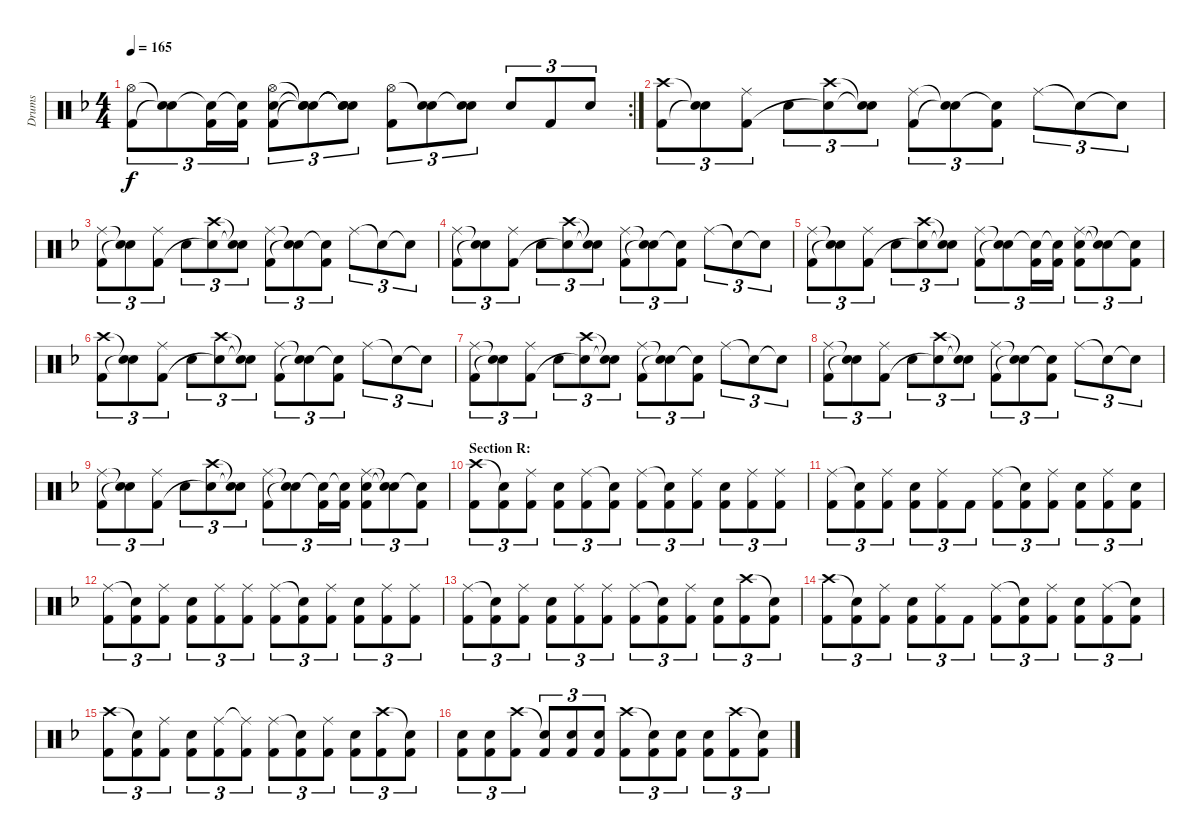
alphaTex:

\track ("Drums" "Drums") {instrument percussion}
\staff {score}
\articulation defaults
\rc 2
\ts (4 4)
\tempo 165
\clef neutral
\ks f
("Hi-Hat (open)" "Kick (hit) 2").8{tu (3 2) dy f} ("Snare (hit)"{t} "Snare (hit)"{t}).8{tu (3 2)} ("Snare (hit)"{t} "Kick (hit) 2").16{tu (3 2)} ("Snare (hit)"{t} "Kick (hit) 2").16{tu (3 2)} ("Hi-Hat (open)" "Snare (hit) 2" "Kick (hit) 2").8{tu (3 2)} ("Snare (hit)"{t} "Snare (hit)"{t} "Snare (hit)"{t}).8{tu (3 2)} ("Snare (hit)"{t} "Snare (hit)"{t} "Snare (hit)"{t}).8{tu (3 2)} ("Hi-Hat (open)" "Kick (hit) 2").8{tu (3 2)} ("Snare (hit)"{t} "Snare (hit) 2").8{tu (3 2)} ("Snare (hit)"{t} "Snare (hit) 2").8{tu (3 2)} "Snare (hit) 2".8{tu (3 2)} "Kick (hit) 2".8{tu (3 2)} "Snare (hit) 2".8{tu (3 2)} |
("Crash high (hit)" "Kick (hit) 2").8{tu (3 2)} ("Snare (hit)"{t} "Snare (hit)"{t}).8{tu (3 2)} ("Ride (middle)" "Kick (hit) 2").8{tu (3 2)} "Snare (hit) 2".8{tu (3 2)} ("Crash high (hit)" "Snare (hit)"{t}).8{tu (3 2)} ("Snare (hit)"{t} "Snare (hit)"{t}).8{tu (3 2)} ("Ride (middle)" "Kick (hit) 2").8{tu (3 2)} ("Snare (hit)"{t} "Snare (hit)"{t}).8{tu (3 2)} ("Snare (hit)"{t} "Kick (hit) 2").8{tu (3 2)} "Ride (middle)".8{tu (3 2)} "Snare (hit)"{t}.8{tu (3 2)} "Snare (hit)"{t}.8{tu (3 2)} |
("Ride (middle)" "Kick (hit) 2").8{tu (3 2)} ("Snare (hit)"{t} "Snare (hit)"{t}).8{tu (3 2)} ("Ride (middle)" "Kick (hit) 2").8{tu (3 2)} "Snare (hit) 2".8{tu (3 2)} ("Crash high (hit)" "Snare (hit)"{t}).8{tu (3 2)} ("Snare (hit)"{t} "Snare (hit)"{t}).8{tu (3 2)} ("Ride (middle)" "Kick (hit) 2").8{tu (3 2)} ("Snare (hit)"{t} "Snare (hit)"{t}).8{tu (3 2)} ("Snare (hit)"{t} "Kick (hit) 2").8{tu (3 2)} "Ride (middle)".8{tu (3 2)} "Snare (hit)"{t}.8{tu (3 2)} "Snare (hit)"{t}.8{tu (3 2)} |
("Ride (middle)" "Kick (hit) 2").8{tu (3 2)} ("Snare (hit)"{t} "Snare (hit)"{t}).8{tu (3 2)} ("Ride (middle)" "Kick (hit) 2").8{tu (3 2)} "Snare (hit) 2".8{tu (3 2)} ("Crash high (hit)" "Snare (hit)"{t}).8{tu (3 2)} ("Snare (hit)"{t} "Snare (hit)"{t}).8{tu (3 2)} ("Ride (middle)" "Kick (hit) 2").8{tu (3 2)} ("Snare (hit)"{t} "Snare (hit)"{t}).8{tu (3 2)} ("Snare (hit)"{t} "Kick (hit) 2").8{tu (3 2)} "Ride (middle)".8{tu (3 2)} "Snare (hit)"{t}.8{tu (3 2)} "Snare (hit)"{t}.8{tu (3 2)} |
("Ride (middle)" "Kick (hit) 2").8{tu (3 2)} ("Snare (hit)"{t} "Snare (hit)"{t}).8{tu (3 2)} ("Ride (middle)" "Kick (hit) 2").8{tu (3 2)} "Snare (hit) 2".8{tu (3 2)} ("Crash high (hit)" "Snare (hit)"{t}).8{tu (3 2)} ("Snare (hit)"{t} "Snare (hit)"{t}).8{tu (3 2)} ("Ride (middle)" "Kick (hit) 2").8{tu (3 2)} ("Snare (hit)"{t} "Snare (hit)"{t}).8{tu (3 2)} ("Snare (hit)"{t} "Kick (hit) 2").16{tu (3 2)} ("Snare (hit)"{t} "Kick (hit) 2").16{tu (3 2)} ("Ride (middle)" "Snare (hit) 2" "Kick (hit) 2").8{tu (3 2)} ("Snare (hit)"{t} "Snare (hit)"{t}).8{tu (3 2)} ("Snare (hit)"{t} "Kick (hit) 2").8{tu (3 2)} |
("Crash high (hit)" "Kick (hit) 2").8{tu (3 2)} ("Snare (hit)"{t} "Snare (hit)"{t}).8{tu (3 2)} ("Ride (middle)" "Kick (hit) 2").8{tu (3 2)} "Snare (hit) 2".8{tu (3 2)} ("Crash high (hit)" "Snare (hit)"{t}).8{tu (3 2)} ("Snare (hit)"{t} "Snare (hit)"{t}).8{tu (3 2)} ("Ride (middle)" "Kick (hit) 2").8{tu (3 2)} ("Snare (hit)"{t} "Snare (hit)"{t}).8{tu (3 2)} ("Snare (hit)"{t} "Kick (hit) 2").8{tu (3 2)} "Ride (middle)".8{tu (3 2)} "Snare (hit)"{t}.8{tu (3 2)} "Snare (hit)"{t}.8{tu (3 2)} |
("Ride (middle)" "Kick (hit) 2").8{tu (3 2)} ("Snare (hit)"{t} "Snare (hit)"{t}).8{tu (3 2)} ("Ride (middle)" "Kick (hit) 2").8{tu (3 2)} "Snare (hit) 2".8{tu (3 2)} ("Crash high (hit)" "Snare (hit)"{t}).8{tu (3 2)} ("Snare (hit)"{t} "Snare (hit)"{t}).8{tu (3 2)} ("Ride (middle)" "Kick (hit) 2").8{tu (3 2)} ("Snare (hit)"{t} "Snare (hit)"{t}).8{tu (3 2)} ("Snare (hit)"{t} "Kick (hit) 2").8{tu (3 2)} "Ride (middle)".8{tu (3 2)} "Snare (hit)"{t}.8{tu (3 2)} "Snare (hit)"{t}.8{tu (3 2)} |
("Ride (middle)" "Kick (hit) 2").8{tu (3 2)} ("Snare (hit)"{t} "Snare (hit)"{t}).8{tu (3 2)} ("Ride (middle)" "Kick (hit) 2").8{tu (3 2)} "Snare (hit) 2".8{tu (3 2)} ("Crash high (hit)" "Snare (hit)"{t}).8{tu (3 2)} ("Snare (hit)"{t} "Snare (hit)"{t}).8{tu (3 2)} ("Ride (middle)" "Kick (hit) 2").8{tu (3 2)} ("Snare (hit)"{t} "Snare (hit)"{t}).8{tu (3 2)} ("Snare (hit)"{t} "Kick (hit) 2").8{tu (3 2)} "Ride (middle)".8{tu (3 2)} "Snare (hit)"{t}.8{tu (3 2)} "Snare (hit)"{t}.8{tu (3 2)} |
("Ride (middle)" "Kick (hit) 2").8{tu (3 2)} ("Snare (hit)"{t} "Snare (hit)"{t}).8{tu (3 2)} ("Ride (middle)" "Kick (hit) 2").8{tu (3 2)} "Snare (hit) 2".8{tu (3 2)} ("Crash high (hit)" "Snare (hit)"{t}).8{tu (3 2)} ("Snare (hit)"{t} "Snare (hit)"{t}).8{tu (3 2)} ("Ride (middle)" "Kick (hit) 2").8{tu (3 2)} ("Snare (hit)"{t} "Snare (hit)"{t}).8{tu (3 2)} ("Snare (hit)"{t} "Kick (hit) 2").16{tu (3 2)} ("Snare (hit)"{t} "Kick (hit) 2").16{tu (3 2)} ("Ride (middle)" "Snare (hit) 2" "Kick (hit) 2").8{tu (3 2)} ("Snare (hit)"{t} "Snare (hit)"{t}).8{tu (3 2)} ("Snare (hit)"{t} "Kick (hit) 2").8{tu (3 2)} |
\section ("" "Section R:")
("Crash high (hit)" "Kick (hit) 2").8{tu (3 2)} ("Snare (hit)"{t} "Kick (hit) 2").8{tu (3 2)} ("Ride (middle)" "Kick (hit) 2").8{tu (3 2)} ("Snare (hit) 2" "Kick (hit) 2").8{tu (3 2)} ("Ride (middle)" "Kick (hit) 2").8{tu (3 2)} ("Snare (hit)"{t} "Kick (hit) 2").8{tu (3 2)} ("Ride (middle)" "Kick (hit) 2").8{tu (3 2)} ("Snare (hit)"{t} "Kick (hit) 2").8{tu (3 2)} ("Ride (middle)" "Kick (hit) 2").8{tu (3 2)} ("Snare (hit) 2" "Kick (hit) 2").8{tu (3 2)} ("Ride (middle)" "Kick (hit) 2").8{tu (3 2)} ("Ride (middle)" "Kick (hit) 2").8{tu (3 2)} |
("Ride (middle)" "Kick (hit) 2").8{tu (3 2)} ("Snare (hit)"{t} "Kick (hit) 2").8{tu (3 2)} ("Ride (middle)" "Kick (hit) 2").8{tu (3 2)} ("Snare (hit) 2" "Kick (hit) 2").8{tu (3 2)} ("Ride (middle)" "Kick (hit) 2").8{tu (3 2)} "Kick (hit) 2".8{tu (3 2)} ("Ride (middle)" "Kick (hit) 2").8{tu (3 2)} ("Snare (hit)"{t} "Kick (hit) 2").8{tu (3 2)} ("Ride (middle)" "Kick (hit) 2").8{tu (3 2)} ("Snare (hit) 2" "Kick (hit) 2").8{tu (3 2)} ("Ride (middle)" "Kick (hit) 2").8{tu (3 2)} ("Snare (hit) 2" "Kick (hit) 2").8{tu (3 2)} |
("Ride (middle)" "Kick (hit) 2").8{tu (3 2)} ("Snare (hit)"{t} "Kick (hit) 2").8{tu (3 2)} ("Ride (middle)" "Kick (hit) 2").8{tu (3 2)} ("Snare (hit) 2" "Kick (hit) 2").8{tu (3 2)} ("Ride (middle)" "Kick (hit) 2").8{tu (3 2)} ("Ride (middle)" "Kick (hit) 2").8{tu (3 2)} ("Ride (middle)" "Kick (hit) 2").8{tu (3 2)} ("Snare (hit)"{t} "Kick (hit) 2").8{tu (3 2)} ("Ride (middle)" "Kick (hit) 2").8{tu (3 2)} ("Snare (hit) 2" "Kick (hit) 2").8{tu (3 2)} ("Ride (middle)" "Kick (hit) 2").8{tu (3 2)} ("Ride (middle)" "Kick (hit) 2").8{tu (3 2)} |
("Ride (middle)" "Kick (hit) 2").8{tu (3 2)} ("Snare (hit)"{t} "Kick (hit) 2").8{tu (3 2)} ("Ride (middle)" "Kick (hit) 2").8{tu (3 2)} ("Snare (hit) 2" "Kick (hit) 2").8{tu (3 2)} ("Ride (middle)" "Kick (hit) 2").8{tu (3 2)} ("Ride (middle)" "Kick (hit) 2").8{tu (3 2)} ("Ride (middle)" "Kick (hit) 2").8{tu (3 2)} ("Snare (hit)"{t} "Kick (hit) 2").8{tu (3 2)} ("Ride (middle)" "Kick (hit) 2").8{tu (3 2)} ("Snare (hit) 2" "Kick (hit) 2").8{tu (3 2)} ("Crash high (hit)" "Kick (hit) 2").8{tu (3 2)} ("Snare (hit)"{t} "Kick (hit) 2").8{tu (3 2)} |
("Crash high (hit)" "Kick (hit) 2").8{tu (3 2)} ("Snare (hit)"{t} "Kick (hit) 2").8{tu (3 2)} ("Ride (middle)" "Kick (hit) 2").8{tu (3 2)} ("Snare (hit) 2" "Kick (hit) 2").8{tu (3 2)} ("Ride (middle)" "Kick (hit) 2").8{tu (3 2)} "Kick (hit) 2".8{tu (3 2)} ("Ride (middle)" "Kick (hit) 2").8{tu (3 2)} ("Snare (hit)"{t} "Kick (hit) 2").8{tu (3 2)} ("Ride (middle)" "Kick (hit) 2").8{tu (3 2)} ("Snare (hit) 2" "Kick (hit) 2").8{tu (3 2)} ("Ride (middle)" "Kick (hit) 2").8{tu (3 2)} ("Snare (hit)"{t} "Kick (hit) 2").8{tu (3 2)} |
("Crash high (hit)" "Kick (hit) 2").8{tu (3 2)} ("Snare (hit)"{t} "Kick (hit) 2").8{tu (3 2)} ("Ride (middle)" "Kick (hit) 2").8{tu (3 2)} ("Snare (hit) 2" "Kick (hit) 2").8{tu (3 2)} ("Ride (middle)" "Kick (hit) 2").8{tu (3 2)} ("Ride (middle)"{t} "Kick (hit) 2").8{tu (3 2)} ("Ride (middle)" "Kick (hit) 2").8{tu (3 2)} ("Snare (hit)"{t} "Kick (hit) 2").8{tu (3 2)} ("Ride (middle)" "Kick (hit) 2").8{tu (3 2)} ("Snare (hit) 2" "Kick (hit) 2").8{tu (3 2)} ("Crash high (hit)" "Kick (hit) 2").8{tu (3 2)} ("Snare (hit)"{t} "Kick (hit) 2").8{tu (3 2)} |
("Snare (hit) 2" "Kick (hit) 2").8{tu (3 2)} ("Snare (hit) 2" "Kick (hit) 2").8{tu (3 2)} ("Crash high (hit)" "Kick (hit) 2").8{tu (3 2)} ("Snare (hit)"{t} "Kick (hit) 2").8{tu (3 2)} ("Snare (hit) 2" "Kick (hit) 2").8{tu (3 2)} ("Snare (hit) 2" "Kick (hit) 2").8{tu (3 2)} ("Crash high (hit)" "Kick (hit) 2").8{tu (3 2)} ("Snare (hit)"{t} "Kick (hit) 2").8{tu (3 2)} ("Snare (hit) 2" "Kick (hit) 2").8{tu (3 2)} ("Snare (hit) 2" "Kick (hit) 2").8{tu (3 2)} ("Crash high (hit)" "Kick (hit) 2").8{tu (3 2)} ("Snare (hit)"{t} "Kick (hit) 2").8{tu (3 2)}
